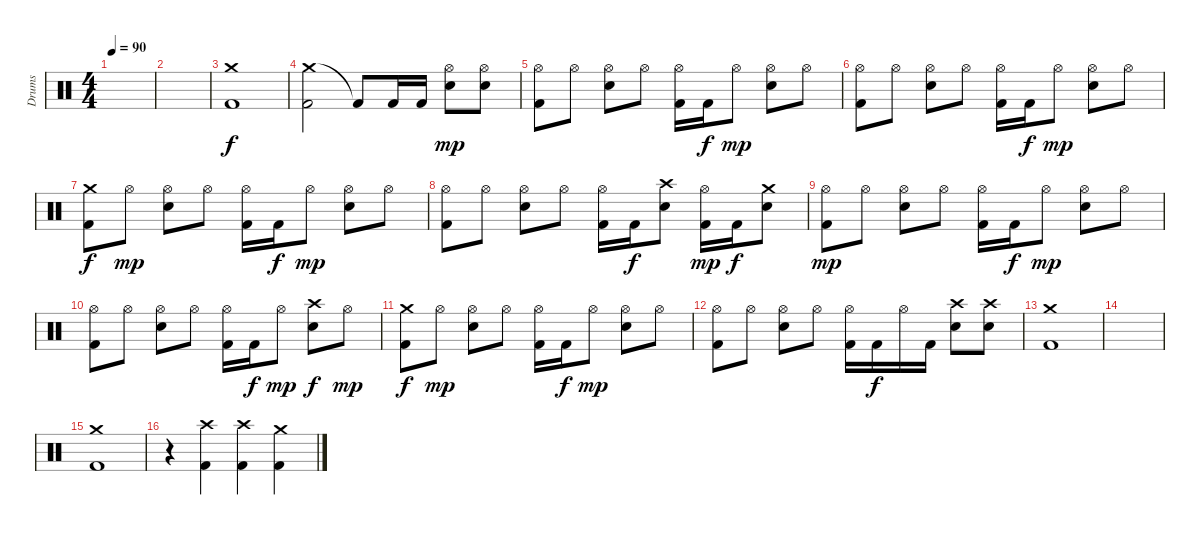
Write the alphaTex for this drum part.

\track ("Drums" "Drums") {instrument percussion}
\staff {score}
\articulation defaults
\ts (4 4)
\section ("" "")
\tempo 90
\clef neutral
\ks c
|
|
("Crash medium (hit)" "Kick (hit) 2").1 |
("Crash medium (hit)" "Kick (hit) 2").2 "Kick (hit) 2"{t}.8 "Kick (hit) 2".16 "Kick (hit) 2".16 ("Hi-Hat (open)" "Snare (hit) 2").8{dy mp} ("Hi-Hat (open)" "Snare (hit) 2").8 |
("Hi-Hat (open)" "Kick (hit) 2").8 "Hi-Hat (open)".8 ("Hi-Hat (open)" "Snare (hit) 2").8 "Hi-Hat (open)".8 ("Hi-Hat (open)" "Kick (hit) 2").16 "Kick (hit) 2".16{dy f} "Hi-Hat (open)".8{dy mp} ("Hi-Hat (open)" "Snare (hit) 2").8 "Hi-Hat (open)".8 |
("Hi-Hat (open)" "Kick (hit) 2").8 "Hi-Hat (open)".8 ("Hi-Hat (open)" "Snare (hit) 2").8 "Hi-Hat (open)".8 ("Hi-Hat (open)" "Kick (hit) 2").16 "Kick (hit) 2".16{dy f} "Hi-Hat (open)".8{dy mp} ("Hi-Hat (open)" "Snare (hit) 2").8 "Hi-Hat (open)".8 |
("Crash medium (hit)" "Kick (hit) 2").8{dy f} "Hi-Hat (open)".8{dy mp} ("Hi-Hat (open)" "Snare (hit) 2").8 "Hi-Hat (open)".8 ("Hi-Hat (open)" "Kick (hit) 2").16 "Kick (hit) 2".16{dy f} "Hi-Hat (open)".8{dy mp} ("Hi-Hat (open)" "Snare (hit) 2").8 "Hi-Hat (open)".8 |
("Hi-Hat (open)" "Kick (hit) 2").8 "Hi-Hat (open)".8 ("Hi-Hat (open)" "Snare (hit) 2").8 "Hi-Hat (open)".8 ("Hi-Hat (open)" "Kick (hit) 2").16 "Kick (hit) 2".16{dy f} ("Crash high (hit)" "Snare (hit) 2").8 ("Hi-Hat (open)" "Kick (hit) 2").16{dy mp} "Kick (hit) 2".16{dy f} ("Crash medium (hit)" "Snare (hit) 2").8 |
("Hi-Hat (open)" "Kick (hit) 2").8{dy mp} "Hi-Hat (open)".8 ("Hi-Hat (open)" "Snare (hit) 2").8 "Hi-Hat (open)".8 ("Hi-Hat (open)" "Kick (hit) 2").16 "Kick (hit) 2".16{dy f} "Hi-Hat (open)".8{dy mp} ("Hi-Hat (open)" "Snare (hit) 2").8 "Hi-Hat (open)".8 |
("Hi-Hat (open)" "Kick (hit) 2").8 "Hi-Hat (open)".8 ("Hi-Hat (open)" "Snare (hit) 2").8 "Hi-Hat (open)".8 ("Hi-Hat (open)" "Kick (hit) 2").16 "Kick (hit) 2".16{dy f} "Hi-Hat (open)".8{dy mp} ("Crash high (hit)" "Snare (hit) 2").8{dy f} "Hi-Hat (open)".8{dy mp} |
("Crash medium (hit)" "Kick (hit) 2").8{dy f} "Hi-Hat (open)".8{dy mp} ("Hi-Hat (open)" "Snare (hit) 2").8 "Hi-Hat (open)".8 ("Hi-Hat (open)" "Kick (hit) 2").16 "Kick (hit) 2".16{dy f} "Hi-Hat (open)".8{dy mp} ("Hi-Hat (open)" "Snare (hit) 2").8 "Hi-Hat (open)".8 |
("Hi-Hat (open)" "Kick (hit) 2").8 "Hi-Hat (open)".8 ("Hi-Hat (open)" "Snare (hit) 2").8 "Hi-Hat (open)".8 ("Hi-Hat (open)" "Kick (hit) 2").16 "Kick (hit) 2".16{dy f} "Hi-Hat (open)".16 "Kick (hit) 2".16 ("Crash high (hit)" "Snare (hit) 2").8 ("Crash high (hit)" "Snare (hit) 2").8 |
\section ("" "")
("Crash medium (hit)" "Kick (hit) 2").1 |
|
("Crash medium (hit)" "Kick (hit) 2").1 |
r.4 ("Crash high (hit)" "Kick (hit) 2").4 ("Crash high (hit)" "Kick (hit) 2").4 ("Crash medium (hit)" "Kick (hit) 2").4
